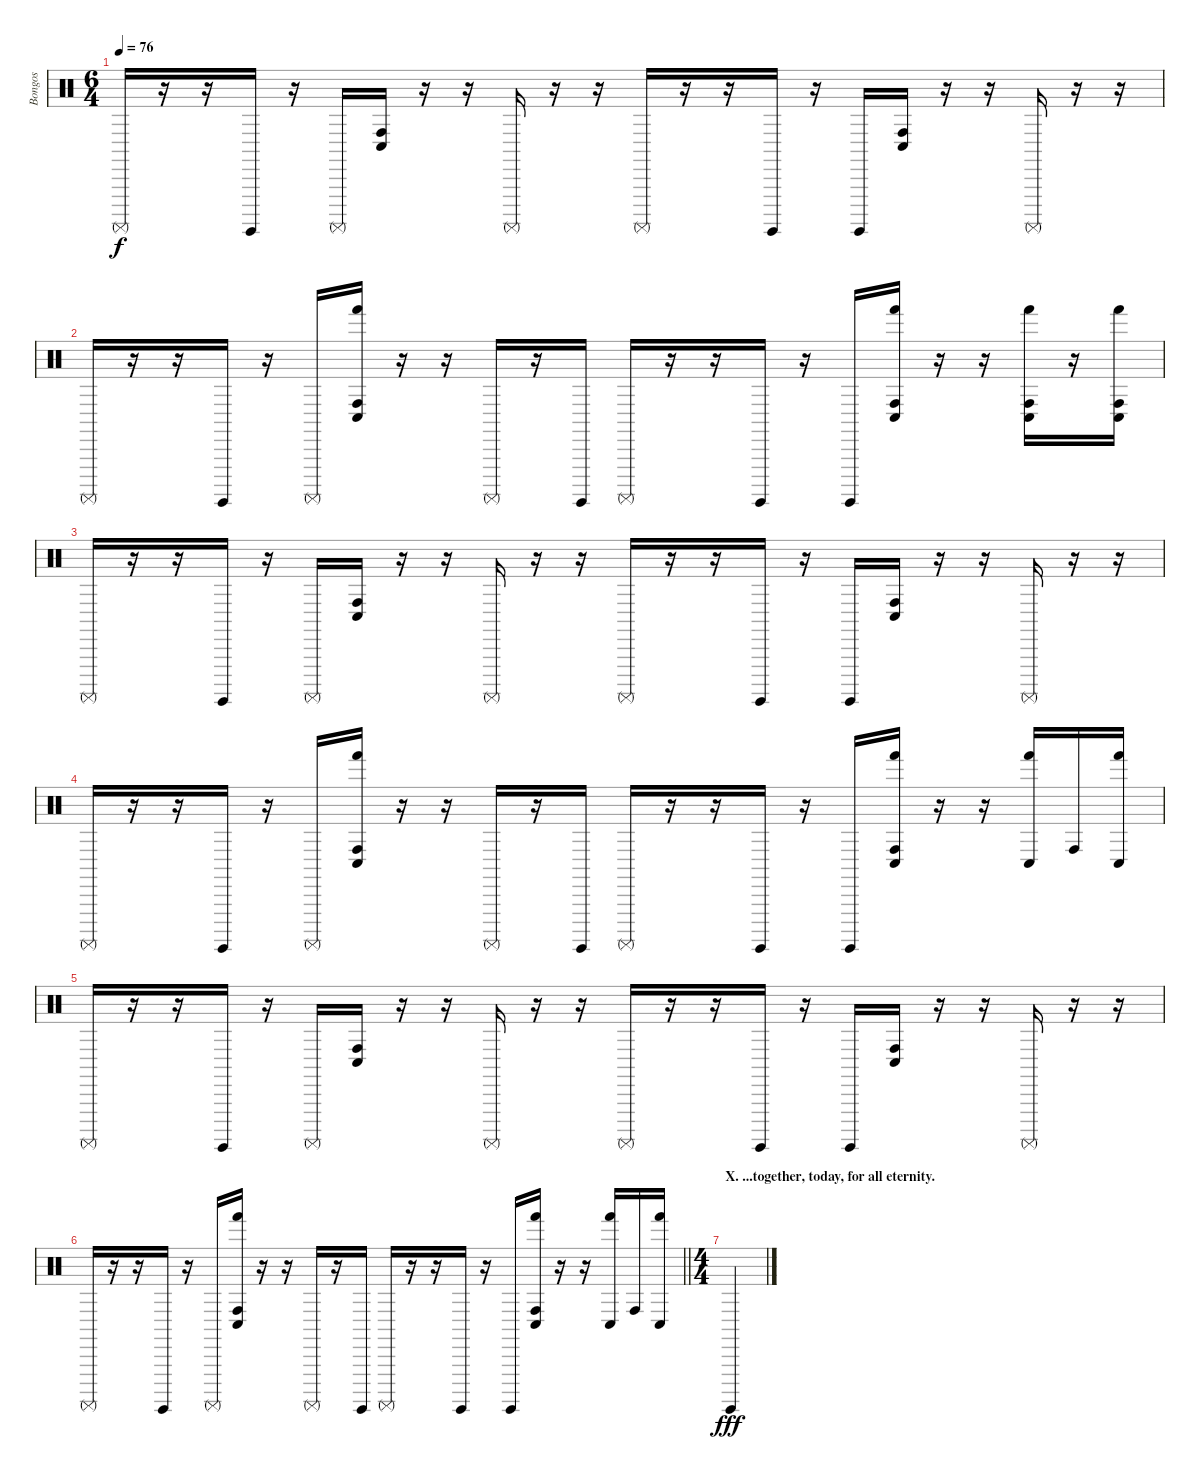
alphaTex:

\track ("Bongos" "Bongos") {mute instrument percussion}
\staff {score}
\articulation defaults
\ts (6 4)
\tempo 76
\clef neutral
\ks c "Surdo (mute)".16{dy f}
r.16 r.16 "Surdo (hit)".16 r.16 "Surdo (mute)".16 ("Conga high (hit)" "Conga low (hit)").16 r.16 r.16 "Surdo (mute)".16 r.16 r.16 "Surdo (mute)".16 r.16 r.16 "Surdo (hit)".16 r.16 "Surdo (hit)".16 ("Conga high (hit)" "Conga low (hit)").16 r.16 r.16 "Surdo (mute)".16 r.16 r.16 |
"Surdo (mute)".16 r.16 r.16 "Surdo (hit)".16 r.16 "Surdo (mute)".16 ("Hand (hit)" "Conga high (hit)" "Conga low (hit)").16 r.16 r.16 "Surdo (mute)".16 r.16 "Surdo (hit)".16 "Surdo (mute)".16 r.16 r.16 "Surdo (hit)".16 r.16 "Surdo (hit)".16 ("Hand (hit)" "Conga high (hit)" "Conga low (hit)").16 r.16 r.16 ("Hand (hit)" "Conga high (hit)" "Conga low (hit)").16 r.16 ("Hand (hit)" "Conga high (hit)" "Conga low (hit)").16 |
"Surdo (mute)".16 r.16 r.16 "Surdo (hit)".16 r.16 "Surdo (mute)".16 ("Conga high (hit)" "Conga low (hit)").16 r.16 r.16 "Surdo (mute)".16 r.16 r.16 "Surdo (mute)".16 r.16 r.16 "Surdo (hit)".16 r.16 "Surdo (hit)".16 ("Conga high (hit)" "Conga low (hit)").16 r.16 r.16 "Surdo (mute)".16 r.16 r.16 |
"Surdo (mute)".16 r.16 r.16 "Surdo (hit)".16 r.16 "Surdo (mute)".16 ("Hand (hit)" "Conga high (hit)" "Conga low (hit)").16 r.16 r.16 "Surdo (mute)".16 r.16 "Surdo (hit)".16 "Surdo (mute)".16 r.16 r.16 "Surdo (hit)".16 r.16 "Surdo (hit)".16 ("Hand (hit)" "Conga high (hit)" "Conga low (hit)").16 r.16 r.16 ("Hand (hit)" "Conga low (hit)").16 "Conga high (hit)".16 ("Hand (hit)" "Conga low (hit)").16 |
"Surdo (mute)".16 r.16 r.16 "Surdo (hit)".16 r.16 "Surdo (mute)".16 ("Conga high (hit)" "Conga low (hit)").16 r.16 r.16 "Surdo (mute)".16 r.16 r.16 "Surdo (mute)".16 r.16 r.16 "Surdo (hit)".16 r.16 "Surdo (hit)".16 ("Conga high (hit)" "Conga low (hit)").16 r.16 r.16 "Surdo (mute)".16 r.16 r.16 |
\barLineRight lightlight "Surdo (mute)".16
r.16 r.16 "Surdo (hit)".16 r.16 "Surdo (mute)".16 ("Hand (hit)" "Conga high (hit)" "Conga low (hit)").16 r.16 r.16 "Surdo (mute)".16 r.16 "Surdo (hit)".16 "Surdo (mute)".16 r.16 r.16 "Surdo (hit)".16 r.16 "Surdo (hit)".16 ("Hand (hit)" "Conga high (hit)" "Conga low (hit)").16 r.16 r.16 ("Hand (hit)" "Conga low (hit)").16 "Conga high (hit)".16 ("Hand (hit)" "Conga low (hit)").16 |
\ts (4 4)
\section ("" "X. ...together, today, for all eternity.")
"Surdo (hit)".4{dy fff}
